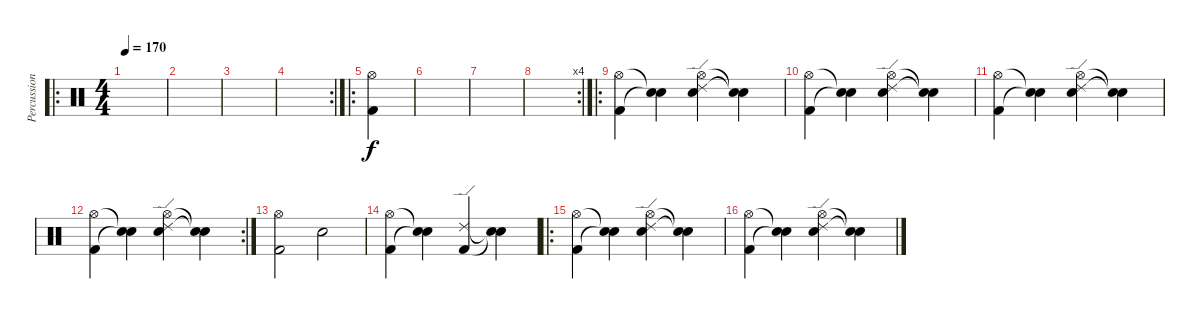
\track ("Percussion" "Percussion") {instrument percussion}
\staff {score}
\articulation defaults
\ro
\ts (4 4)
\tempo 170
\clef neutral
\ks c
|
|
|
\rc 2
|
\ro
("Hi-Hat (open)" "Kick (hit) 2").4 |
|
|
\rc 4
|
\ro
("Hi-Hat (open)" "Kick (hit) 2").4 ("Electric Snare (hit)"{t} "Snare (hit)"{t}).4 ("Hi-Hat (open)" "Ride (edge) 2" "Electric Snare (hit)").4 ("Electric Snare (hit)"{t} "Snare (hit)"{t}).4 |
("Hi-Hat (open)" "Kick (hit) 2").4 ("Electric Snare (hit)"{t} "Snare (hit)"{t}).4 ("Hi-Hat (open)" "Ride (edge) 2" "Electric Snare (hit)").4 ("Electric Snare (hit)"{t} "Snare (hit)"{t}).4 |
("Hi-Hat (open)" "Kick (hit) 2").4 ("Electric Snare (hit)"{t} "Snare (hit)"{t}).4 ("Hi-Hat (open)" "Ride (edge) 2" "Electric Snare (hit)").4 ("Electric Snare (hit)"{t} "Snare (hit)"{t}).4 |
\rc 2
("Hi-Hat (open)" "Kick (hit) 2").4 ("Electric Snare (hit)"{t} "Snare (hit)"{t}).4 ("Hi-Hat (open)" "Ride (edge) 2" "Electric Snare (hit)").4 ("Electric Snare (hit)"{t} "Snare (hit)"{t}).4 |
("Hi-Hat (open)" "Kick (hit) 2").2 "Electric Snare (hit)".2 |
("Hi-Hat (open)" "Kick (hit) 2").4 ("Electric Snare (hit)"{t} "Snare (hit)"{t}).4 ("Ride (edge) 2" "Kick (hit) 2").4 ("Electric Snare (hit)"{t} "Snare (hit)"{t}).4 |
\ro
("Hi-Hat (open)" "Kick (hit) 2").4 ("Electric Snare (hit)"{t} "Snare (hit)"{t}).4 ("Hi-Hat (open)" "Ride (edge) 2" "Electric Snare (hit)").4 ("Electric Snare (hit)"{t} "Snare (hit)"{t}).4 |
("Hi-Hat (open)" "Kick (hit) 2").4 ("Electric Snare (hit)"{t} "Snare (hit)"{t}).4 ("Hi-Hat (open)" "Ride (edge) 2" "Electric Snare (hit)").4 ("Electric Snare (hit)"{t} "Snare (hit)"{t}).4
